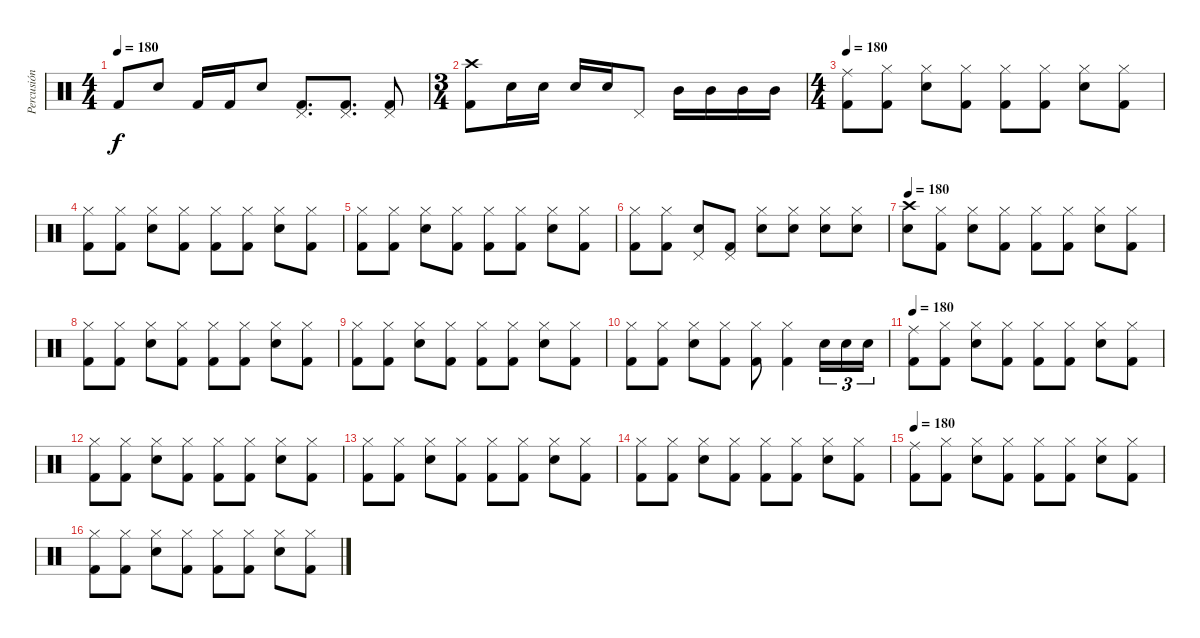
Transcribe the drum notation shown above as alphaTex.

\track ("Percusión" "Percusión") {instrument percussion}
\staff {score}
\articulation defaults
\ts (4 4)
\tempo 180
\clef neutral
\ks c "Kick (hit) 2".8{dy f} "Snare (hit) 2".8 "Kick (hit) 2".16 "Kick (hit) 2".16 "Snare (hit) 2".8
("Kick (hit) 2" "Pedal Hi-Hat (hit)").8{d} ("Kick (hit) 2" "Pedal Hi-Hat (hit)").8{d} ("Kick (hit) 2" "Pedal Hi-Hat (hit)").8 |
\ts (3 4)
("Crash high (hit)" "Kick (hit) 2").8 "Snare (hit) 2".16 "Snare (hit) 2".16 "Snare (hit) 2".16 "Snare (hit) 2".16 "Pedal Hi-Hat (hit)".8 "Mid Tom (hit)".16 "Mid Tom (hit)".16 "Mid Tom (hit)".16 "Mid Tom (hit)".16 |
\ts (4 4)
\tempo 190
\tempo 180
("Kick (hit) 2" "Ride (middle)").8 ("Kick (hit) 2" "Hi-Hat (closed)").8 ("Snare (hit) 2" "Hi-Hat (closed)").8 ("Kick (hit) 2" "Hi-Hat (closed)").8 ("Kick (hit) 2" "Hi-Hat (closed)").8 ("Kick (hit) 2" "Hi-Hat (closed)").8 ("Snare (hit) 2" "Hi-Hat (closed)").8 ("Kick (hit) 2" "Hi-Hat (closed)").8 |
("Kick (hit) 2" "Hi-Hat (closed)").8 ("Kick (hit) 2" "Hi-Hat (closed)").8 ("Snare (hit) 2" "Hi-Hat (closed)").8 ("Kick (hit) 2" "Hi-Hat (closed)").8 ("Kick (hit) 2" "Hi-Hat (closed)").8 ("Kick (hit) 2" "Hi-Hat (closed)").8 ("Snare (hit) 2" "Hi-Hat (closed)").8 ("Kick (hit) 2" "Hi-Hat (closed)").8 |
("Kick (hit) 2" "Hi-Hat (closed)").8 ("Kick (hit) 2" "Hi-Hat (closed)").8 ("Snare (hit) 2" "Hi-Hat (closed)").8 ("Kick (hit) 2" "Hi-Hat (closed)").8 ("Kick (hit) 2" "Hi-Hat (closed)").8 ("Kick (hit) 2" "Hi-Hat (closed)").8 ("Snare (hit) 2" "Hi-Hat (closed)").8 ("Kick (hit) 2" "Hi-Hat (closed)").8 |
("Kick (hit) 2" "Hi-Hat (closed)").8 ("Kick (hit) 2" "Hi-Hat (closed)").8 ("Snare (hit) 2" "Pedal Hi-Hat (hit)").8 ("Kick (hit) 2" "Pedal Hi-Hat (hit)").8 ("Snare (hit) 2" "Hi-Hat (closed)").8 ("Snare (hit) 2" "Hi-Hat (closed)").8 ("Snare (hit) 2" "Hi-Hat (closed)").8 ("Snare (hit) 2" "Hi-Hat (closed)").8 |
\tempo 180
("Snare (hit) 2" "Crash high (hit)").8 ("Kick (hit) 2" "Hi-Hat (closed)").8 ("Snare (hit) 2" "Hi-Hat (closed)").8 ("Kick (hit) 2" "Hi-Hat (closed)").8 ("Kick (hit) 2" "Hi-Hat (closed)").8 ("Kick (hit) 2" "Hi-Hat (closed)").8 ("Snare (hit) 2" "Hi-Hat (closed)").8 ("Kick (hit) 2" "Hi-Hat (closed)").8 |
("Kick (hit) 2" "Hi-Hat (closed)").8 ("Kick (hit) 2" "Hi-Hat (closed)").8 ("Snare (hit) 2" "Hi-Hat (closed)").8 ("Kick (hit) 2" "Hi-Hat (closed)").8 ("Kick (hit) 2" "Hi-Hat (closed)").8 ("Kick (hit) 2" "Hi-Hat (closed)").8 ("Snare (hit) 2" "Hi-Hat (closed)").8 ("Kick (hit) 2" "Hi-Hat (closed)").8 |
("Kick (hit) 2" "Hi-Hat (closed)").8 ("Kick (hit) 2" "Hi-Hat (closed)").8 ("Snare (hit) 2" "Hi-Hat (closed)").8 ("Kick (hit) 2" "Hi-Hat (closed)").8 ("Kick (hit) 2" "Hi-Hat (closed)").8 ("Kick (hit) 2" "Hi-Hat (closed)").8 ("Snare (hit) 2" "Hi-Hat (closed)").8 ("Kick (hit) 2" "Hi-Hat (closed)").8 |
("Kick (hit) 2" "Hi-Hat (closed)").8 ("Kick (hit) 2" "Hi-Hat (closed)").8 ("Snare (hit) 2" "Hi-Hat (closed)").8 ("Kick (hit) 2" "Hi-Hat (closed)").8 ("Kick (hit) 2" "Hi-Hat (closed)").8 ("Kick (hit) 2" "Hi-Hat (closed)").4 "Snare (hit) 2".16{tu (3 2)} "Snare (hit) 2".16{tu (3 2)} "Snare (hit) 2".16{tu (3 2)} |
\tempo 180
("Kick (hit) 2" "Ride (middle)").8 ("Kick (hit) 2" "Hi-Hat (closed)").8 ("Snare (hit) 2" "Hi-Hat (closed)").8 ("Kick (hit) 2" "Hi-Hat (closed)").8 ("Kick (hit) 2" "Hi-Hat (closed)").8 ("Kick (hit) 2" "Hi-Hat (closed)").8 ("Snare (hit) 2" "Hi-Hat (closed)").8 ("Kick (hit) 2" "Hi-Hat (closed)").8 |
("Kick (hit) 2" "Hi-Hat (closed)").8 ("Kick (hit) 2" "Hi-Hat (closed)").8 ("Snare (hit) 2" "Hi-Hat (closed)").8 ("Kick (hit) 2" "Hi-Hat (closed)").8 ("Kick (hit) 2" "Hi-Hat (closed)").8 ("Kick (hit) 2" "Hi-Hat (closed)").8 ("Snare (hit) 2" "Hi-Hat (closed)").8 ("Kick (hit) 2" "Hi-Hat (closed)").8 |
("Kick (hit) 2" "Hi-Hat (closed)").8 ("Kick (hit) 2" "Hi-Hat (closed)").8 ("Snare (hit) 2" "Hi-Hat (closed)").8 ("Kick (hit) 2" "Hi-Hat (closed)").8 ("Kick (hit) 2" "Hi-Hat (closed)").8 ("Kick (hit) 2" "Hi-Hat (closed)").8 ("Snare (hit) 2" "Hi-Hat (closed)").8 ("Kick (hit) 2" "Hi-Hat (closed)").8 |
("Kick (hit) 2" "Hi-Hat (closed)").8 ("Kick (hit) 2" "Hi-Hat (closed)").8 ("Snare (hit) 2" "Hi-Hat (closed)").8 ("Kick (hit) 2" "Hi-Hat (closed)").8 ("Kick (hit) 2" "Hi-Hat (closed)").8 ("Kick (hit) 2" "Hi-Hat (closed)").8 ("Snare (hit) 2" "Hi-Hat (closed)").8 ("Kick (hit) 2" "Hi-Hat (closed)").8 |
\tempo 180
("Kick (hit) 2" "Ride (middle)").8 ("Kick (hit) 2" "Hi-Hat (closed)").8 ("Snare (hit) 2" "Hi-Hat (closed)").8 ("Kick (hit) 2" "Hi-Hat (closed)").8 ("Kick (hit) 2" "Hi-Hat (closed)").8 ("Kick (hit) 2" "Hi-Hat (closed)").8 ("Snare (hit) 2" "Hi-Hat (closed)").8 ("Kick (hit) 2" "Hi-Hat (closed)").8 |
("Kick (hit) 2" "Hi-Hat (closed)").8 ("Kick (hit) 2" "Hi-Hat (closed)").8 ("Snare (hit) 2" "Hi-Hat (closed)").8 ("Kick (hit) 2" "Hi-Hat (closed)").8 ("Kick (hit) 2" "Hi-Hat (closed)").8 ("Kick (hit) 2" "Hi-Hat (closed)").8 ("Snare (hit) 2" "Hi-Hat (closed)").8 ("Kick (hit) 2" "Hi-Hat (closed)").8
